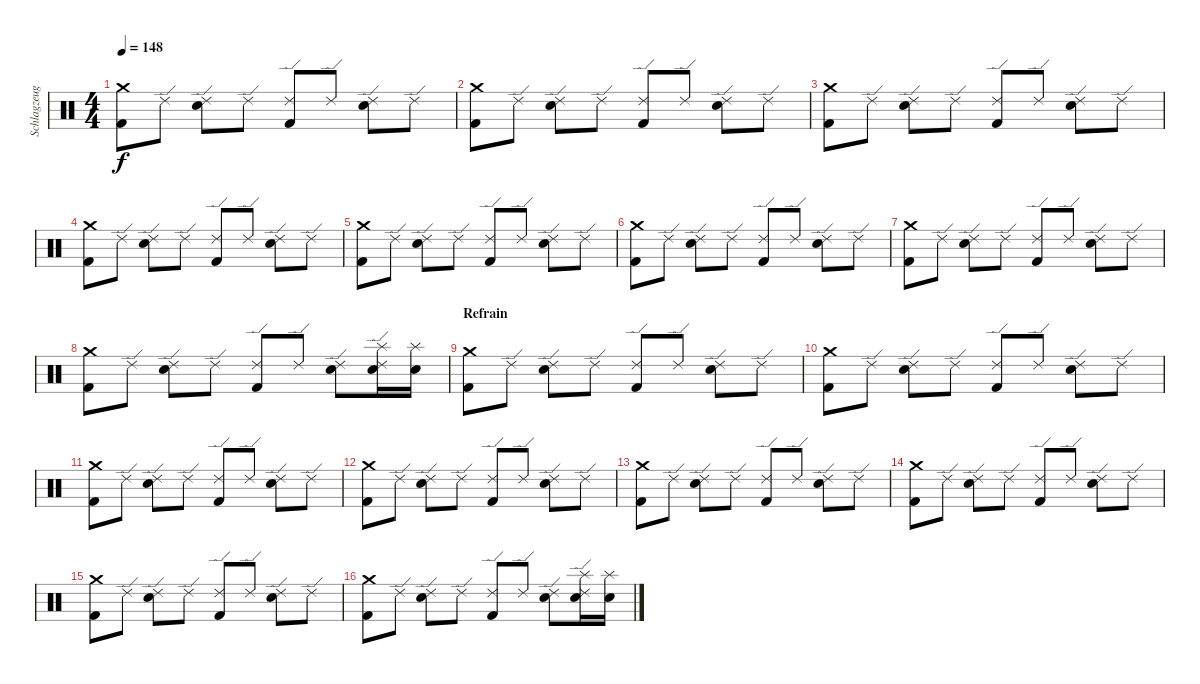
\track ("Schlagzeug" "Schlagzeug") {instrument percussion}
\staff {score}
\articulation defaults
\ts (4 4)
\tempo 148
\clef neutral
\ks c
("Crash medium (hit)" "Kick (hit) 2").8{dy f} "Ride (edge) 2".8 ("Ride (edge) 2" "Snare (hit) 2").8 "Ride (edge) 2".8 ("Ride (edge) 2" "Kick (hit) 2").8 "Ride (edge) 2".8 ("Ride (edge) 2" "Snare (hit) 2").8 "Ride (edge) 2".8 |
("Crash medium (hit)" "Kick (hit) 2").8 "Ride (edge) 2".8 ("Ride (edge) 2" "Snare (hit) 2").8 "Ride (edge) 2".8 ("Ride (edge) 2" "Kick (hit) 2").8 "Ride (edge) 2".8 ("Ride (edge) 2" "Snare (hit) 2").8 "Ride (edge) 2".8 |
("Crash medium (hit)" "Kick (hit) 2").8 "Ride (edge) 2".8 ("Ride (edge) 2" "Snare (hit) 2").8 "Ride (edge) 2".8 ("Ride (edge) 2" "Kick (hit) 2").8 "Ride (edge) 2".8 ("Ride (edge) 2" "Snare (hit) 2").8 "Ride (edge) 2".8 |
("Crash medium (hit)" "Kick (hit) 2").8 "Ride (edge) 2".8 ("Ride (edge) 2" "Snare (hit) 2").8 "Ride (edge) 2".8 ("Ride (edge) 2" "Kick (hit) 2").8 "Ride (edge) 2".8 ("Ride (edge) 2" "Snare (hit) 2").8 "Ride (edge) 2".8 |
("Crash medium (hit)" "Kick (hit) 2").8 "Ride (edge) 2".8 ("Ride (edge) 2" "Snare (hit) 2").8 "Ride (edge) 2".8 ("Ride (edge) 2" "Kick (hit) 2").8 "Ride (edge) 2".8 ("Ride (edge) 2" "Snare (hit) 2").8 "Ride (edge) 2".8 |
("Crash medium (hit)" "Kick (hit) 2").8 "Ride (edge) 2".8 ("Ride (edge) 2" "Snare (hit) 2").8 "Ride (edge) 2".8 ("Ride (edge) 2" "Kick (hit) 2").8 "Ride (edge) 2".8 ("Ride (edge) 2" "Snare (hit) 2").8 "Ride (edge) 2".8 |
("Crash medium (hit)" "Kick (hit) 2").8 "Ride (edge) 2".8 ("Ride (edge) 2" "Snare (hit) 2").8 "Ride (edge) 2".8 ("Ride (edge) 2" "Kick (hit) 2").8 "Ride (edge) 2".8 ("Ride (edge) 2" "Snare (hit) 2").8 "Ride (edge) 2".8 |
("Crash medium (hit)" "Kick (hit) 2").8 "Ride (edge) 2".8 ("Ride (edge) 2" "Snare (hit) 2").8 "Ride (edge) 2".8 ("Ride (edge) 2" "Kick (hit) 2").8 "Ride (edge) 2".8 ("Ride (edge) 2" "Snare (hit) 2").8 ("Splash (hit)" "Snare (hit) 2" "Ride (edge) 2").16 ("Splash (hit)" "Snare (hit) 2").16 |
\section ("" "Refrain")
("Crash medium (hit)" "Kick (hit) 2").8 "Ride (edge) 2".8 ("Ride (edge) 2" "Snare (hit) 2").8 "Ride (edge) 2".8 ("Ride (edge) 2" "Kick (hit) 2").8 "Ride (edge) 2".8 ("Ride (edge) 2" "Snare (hit) 2").8 "Ride (edge) 2".8 |
("Crash medium (hit)" "Kick (hit) 2").8 "Ride (edge) 2".8 ("Ride (edge) 2" "Snare (hit) 2").8 "Ride (edge) 2".8 ("Ride (edge) 2" "Kick (hit) 2").8 "Ride (edge) 2".8 ("Ride (edge) 2" "Snare (hit) 2").8 "Ride (edge) 2".8 |
("Crash medium (hit)" "Kick (hit) 2").8 "Ride (edge) 2".8 ("Ride (edge) 2" "Snare (hit) 2").8 "Ride (edge) 2".8 ("Ride (edge) 2" "Kick (hit) 2").8 "Ride (edge) 2".8 ("Ride (edge) 2" "Snare (hit) 2").8 "Ride (edge) 2".8 |
("Crash medium (hit)" "Kick (hit) 2").8 "Ride (edge) 2".8 ("Ride (edge) 2" "Snare (hit) 2").8 "Ride (edge) 2".8 ("Ride (edge) 2" "Kick (hit) 2").8 "Ride (edge) 2".8 ("Ride (edge) 2" "Snare (hit) 2").8 "Ride (edge) 2".8 |
("Crash medium (hit)" "Kick (hit) 2").8 "Ride (edge) 2".8 ("Ride (edge) 2" "Snare (hit) 2").8 "Ride (edge) 2".8 ("Ride (edge) 2" "Kick (hit) 2").8 "Ride (edge) 2".8 ("Ride (edge) 2" "Snare (hit) 2").8 "Ride (edge) 2".8 |
("Crash medium (hit)" "Kick (hit) 2").8 "Ride (edge) 2".8 ("Ride (edge) 2" "Snare (hit) 2").8 "Ride (edge) 2".8 ("Ride (edge) 2" "Kick (hit) 2").8 "Ride (edge) 2".8 ("Ride (edge) 2" "Snare (hit) 2").8 "Ride (edge) 2".8 |
("Crash medium (hit)" "Kick (hit) 2").8 "Ride (edge) 2".8 ("Ride (edge) 2" "Snare (hit) 2").8 "Ride (edge) 2".8 ("Ride (edge) 2" "Kick (hit) 2").8 "Ride (edge) 2".8 ("Ride (edge) 2" "Snare (hit) 2").8 "Ride (edge) 2".8 |
("Crash medium (hit)" "Kick (hit) 2").8 "Ride (edge) 2".8 ("Ride (edge) 2" "Snare (hit) 2").8 "Ride (edge) 2".8 ("Ride (edge) 2" "Kick (hit) 2").8 "Ride (edge) 2".8 ("Ride (edge) 2" "Snare (hit) 2").8 ("Splash (hit)" "Snare (hit) 2" "Ride (edge) 2").16 ("Splash (hit)" "Snare (hit) 2").16
